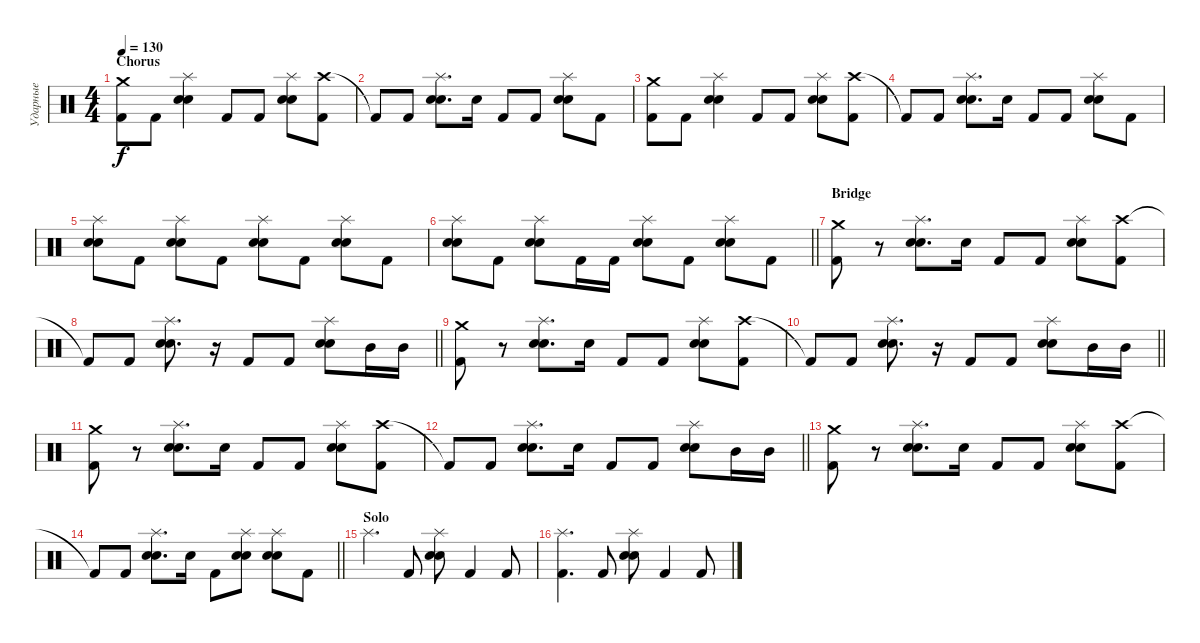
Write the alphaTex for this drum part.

\track ("Ударные" "Ударные") {instrument percussion}
\staff {score}
\articulation defaults
\ts (4 4)
\section ("" "Chorus")
\tempo 130
\clef neutral
\ks c
("Crash medium (hit)" "Kick (hit) 2").8{dy f} "Kick (hit) 2".8 ("Splash (hit)" "Electric Snare (hit)" "Snare (hit) 2").4 "Kick (hit) 2".8 "Kick (hit) 2".8 ("Splash (hit)" "Electric Snare (hit)" "Snare (hit) 2").8 ("Crash high (hit)" "Kick (hit) 2").8 |
"Kick (hit) 2"{t}.8 "Kick (hit) 2".8 ("Splash (hit)" "Electric Snare (hit)" "Snare (hit) 2").8{d} "Electric Snare (hit)".16 "Kick (hit) 2".8 "Kick (hit) 2".8 ("Splash (hit)" "Electric Snare (hit)" "Snare (hit) 2").8 "Kick (hit) 2".8 |
("Crash medium (hit)" "Kick (hit) 2").8 "Kick (hit) 2".8 ("Splash (hit)" "Electric Snare (hit)" "Snare (hit) 2").4 "Kick (hit) 2".8 "Kick (hit) 2".8 ("Splash (hit)" "Electric Snare (hit)" "Snare (hit) 2").8 ("Crash high (hit)" "Kick (hit) 2").8 |
"Kick (hit) 2"{t}.8 "Kick (hit) 2".8 ("Splash (hit)" "Electric Snare (hit)" "Snare (hit) 2").8{d} "Electric Snare (hit)".16 "Kick (hit) 2".8 "Kick (hit) 2".8 ("Splash (hit)" "Electric Snare (hit)" "Snare (hit) 2").8 "Kick (hit) 2".8 |
("Splash (hit)" "Electric Snare (hit)" "Snare (hit) 2").8 "Kick (hit) 2".8 ("Splash (hit)" "Electric Snare (hit)" "Snare (hit) 2").8 "Kick (hit) 2".8 ("Splash (hit)" "Electric Snare (hit)" "Snare (hit) 2").8 "Kick (hit) 2".8 ("Splash (hit)" "Electric Snare (hit)" "Snare (hit) 2").8 "Kick (hit) 2".8 |
\barLineRight lightlight
("Splash (hit)" "Electric Snare (hit)" "Snare (hit) 2").8 "Kick (hit) 2".8 ("Splash (hit)" "Electric Snare (hit)" "Snare (hit) 2").8 "Kick (hit) 2".16 "Kick (hit) 2".16 ("Splash (hit)" "Electric Snare (hit)" "Snare (hit) 2").8 "Kick (hit) 2".8 ("Splash (hit)" "Electric Snare (hit)" "Snare (hit) 2").8 "Kick (hit) 2".8 |
\section ("" "Bridge")
("Crash medium (hit)" "Kick (hit) 2").8 r.8 ("Splash (hit)" "Electric Snare (hit)" "Snare (hit) 2").8{d} "Electric Snare (hit)".16 "Kick (hit) 2".8 "Kick (hit) 2".8 ("Splash (hit)" "Electric Snare (hit)" "Snare (hit) 2").8 ("Crash high (hit)" "Kick (hit) 2").8 |
\barLineRight lightlight "Kick (hit) 2"{t}.8 "Kick (hit) 2".8
("Splash (hit)" "Electric Snare (hit)" "Snare (hit) 2").8{d} r.16 "Kick (hit) 2".8 "Kick (hit) 2".8 ("Splash (hit)" "Electric Snare (hit)" "Snare (hit) 2").8 "Mid Tom (hit)".16 "Mid Tom (hit)".16 |
("Crash medium (hit)" "Kick (hit) 2").8 r.8 ("Splash (hit)" "Electric Snare (hit)" "Snare (hit) 2").8{d} "Electric Snare (hit)".16 "Kick (hit) 2".8 "Kick (hit) 2".8 ("Splash (hit)" "Electric Snare (hit)" "Snare (hit) 2").8 ("Crash high (hit)" "Kick (hit) 2").8 |
\barLineRight lightlight "Kick (hit) 2"{t}.8 "Kick (hit) 2".8
("Splash (hit)" "Electric Snare (hit)" "Snare (hit) 2").8{d} r.16 "Kick (hit) 2".8 "Kick (hit) 2".8 ("Splash (hit)" "Electric Snare (hit)" "Snare (hit) 2").8 "Mid Tom (hit)".16 "Mid Tom (hit)".16 |
("Crash medium (hit)" "Kick (hit) 2").8 r.8 ("Splash (hit)" "Electric Snare (hit)" "Snare (hit) 2").8{d} "Electric Snare (hit)".16 "Kick (hit) 2".8 "Kick (hit) 2".8 ("Splash (hit)" "Electric Snare (hit)" "Snare (hit) 2").8 ("Crash high (hit)" "Kick (hit) 2").8 |
\barLineRight lightlight "Kick (hit) 2"{t}.8 "Kick (hit) 2".8
("Splash (hit)" "Electric Snare (hit)" "Snare (hit) 2").8{d} "Electric Snare (hit)".16 "Kick (hit) 2".8 "Kick (hit) 2".8 ("Splash (hit)" "Electric Snare (hit)" "Snare (hit) 2").8 "Mid Tom (hit)".16 "Mid Tom (hit)".16 |
("Crash medium (hit)" "Kick (hit) 2").8 r.8 ("Splash (hit)" "Electric Snare (hit)" "Snare (hit) 2").8{d} "Electric Snare (hit)".16 "Kick (hit) 2".8 "Kick (hit) 2".8 ("Splash (hit)" "Electric Snare (hit)" "Snare (hit) 2").8 ("Crash high (hit)" "Kick (hit) 2").8 |
\barLineRight lightlight "Kick (hit) 2"{t}.8 "Kick (hit) 2".8
("Splash (hit)" "Electric Snare (hit)" "Snare (hit) 2").8{d} "Electric Snare (hit)".16 "Kick (hit) 2".8 ("Splash (hit)" "Electric Snare (hit)" "Snare (hit) 2").8 ("Splash (hit)" "Electric Snare (hit)" "Snare (hit) 2").8 "Kick (hit) 2".8 |
\section ("" "Solo")
"Splash (hit)".4{d} "Kick (hit) 2".8 ("Splash (hit)" "Electric Snare (hit)" "Snare (hit) 2").8 "Kick (hit) 2".4 "Kick (hit) 2".8 |
("Splash (hit)" "Kick (hit) 2").4{d} "Kick (hit) 2".8 ("Splash (hit)" "Electric Snare (hit)" "Snare (hit) 2").8 "Kick (hit) 2".4 "Kick (hit) 2".8
